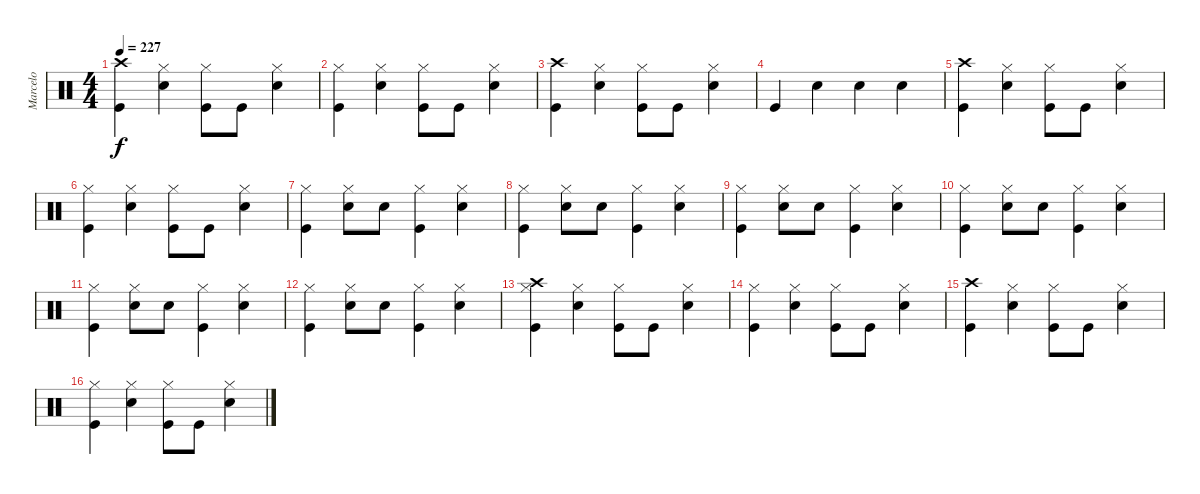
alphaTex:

\track ("Marcelo" "Marcelo") {instrument percussion}
\staff {score}
\articulation defaults
\ts (4 4)
\tempo 227
\clef neutral
\ks c
("Crash high (hit)" "Kick (hit)").4{dy f} ("Hi-Hat (closed)" "Snare (hit) 2").4 ("Hi-Hat (closed)" "Kick (hit)").8 "Kick (hit)".8 ("Hi-Hat (closed)" "Snare (hit) 2").4 |
("Hi-Hat (closed)" "Kick (hit)").4 ("Hi-Hat (closed)" "Snare (hit) 2").4 ("Hi-Hat (closed)" "Kick (hit)").8 "Kick (hit)".8 ("Hi-Hat (closed)" "Snare (hit) 2").4 |
("Crash high (hit)" "Kick (hit)").4 ("Hi-Hat (closed)" "Snare (hit) 2").4 ("Hi-Hat (closed)" "Kick (hit)").8 "Kick (hit)".8 ("Hi-Hat (closed)" "Snare (hit) 2").4 |
"Kick (hit)".4 "Snare (hit) 2".4 "Snare (hit) 2".4 "Snare (hit) 2".4 |
("Crash high (hit)" "Kick (hit)").4 ("Hi-Hat (closed)" "Snare (hit) 2").4 ("Hi-Hat (closed)" "Kick (hit)").8 "Kick (hit)".8 ("Hi-Hat (closed)" "Snare (hit) 2").4 |
("Hi-Hat (closed)" "Kick (hit)").4 ("Hi-Hat (closed)" "Snare (hit) 2").4 ("Hi-Hat (closed)" "Kick (hit)").8 "Kick (hit)".8 ("Hi-Hat (closed)" "Snare (hit) 2").4 |
("Hi-Hat (closed)" "Kick (hit)").4 ("Hi-Hat (closed)" "Snare (hit) 2").8 "Snare (hit) 2".8 ("Hi-Hat (closed)" "Kick (hit)").4 ("Hi-Hat (closed)" "Snare (hit) 2").4 |
("Hi-Hat (closed)" "Kick (hit)").4 ("Hi-Hat (closed)" "Snare (hit) 2").8 "Snare (hit) 2".8 ("Hi-Hat (closed)" "Kick (hit)").4 ("Hi-Hat (closed)" "Snare (hit) 2").4 |
("Hi-Hat (closed)" "Kick (hit)").4 ("Hi-Hat (closed)" "Snare (hit) 2").8 "Snare (hit) 2".8 ("Hi-Hat (closed)" "Kick (hit)").4 ("Hi-Hat (closed)" "Snare (hit) 2").4 |
("Hi-Hat (closed)" "Kick (hit)").4 ("Hi-Hat (closed)" "Snare (hit) 2").8 "Snare (hit) 2".8 ("Hi-Hat (closed)" "Kick (hit)").4 ("Hi-Hat (closed)" "Snare (hit) 2").4 |
("Hi-Hat (closed)" "Kick (hit)").4 ("Hi-Hat (closed)" "Snare (hit) 2").8 "Snare (hit) 2".8 ("Hi-Hat (closed)" "Kick (hit)").4 ("Hi-Hat (closed)" "Snare (hit) 2").4 |
("Hi-Hat (closed)" "Kick (hit)").4 ("Hi-Hat (closed)" "Snare (hit) 2").8 "Snare (hit) 2".8 ("Hi-Hat (closed)" "Kick (hit)").4 ("Hi-Hat (closed)" "Snare (hit) 2").4 |
("Crash high (hit)" "Hi-Hat (closed)" "Kick (hit)").4 ("Hi-Hat (closed)" "Snare (hit) 2").4 ("Hi-Hat (closed)" "Kick (hit)").8 "Kick (hit)".8 ("Hi-Hat (closed)" "Snare (hit) 2").4 |
("Hi-Hat (closed)" "Kick (hit)").4 ("Hi-Hat (closed)" "Snare (hit) 2").4 ("Hi-Hat (closed)" "Kick (hit)").8 "Kick (hit)".8 ("Hi-Hat (closed)" "Snare (hit) 2").4 |
("Crash high (hit)" "Kick (hit)").4 ("Hi-Hat (closed)" "Snare (hit) 2").4 ("Hi-Hat (closed)" "Kick (hit)").8 "Kick (hit)".8 ("Hi-Hat (closed)" "Snare (hit) 2").4 |
("Hi-Hat (closed)" "Kick (hit)").4 ("Hi-Hat (closed)" "Snare (hit) 2").4 ("Hi-Hat (closed)" "Kick (hit)").8 "Kick (hit)".8 ("Hi-Hat (closed)" "Snare (hit) 2").4
